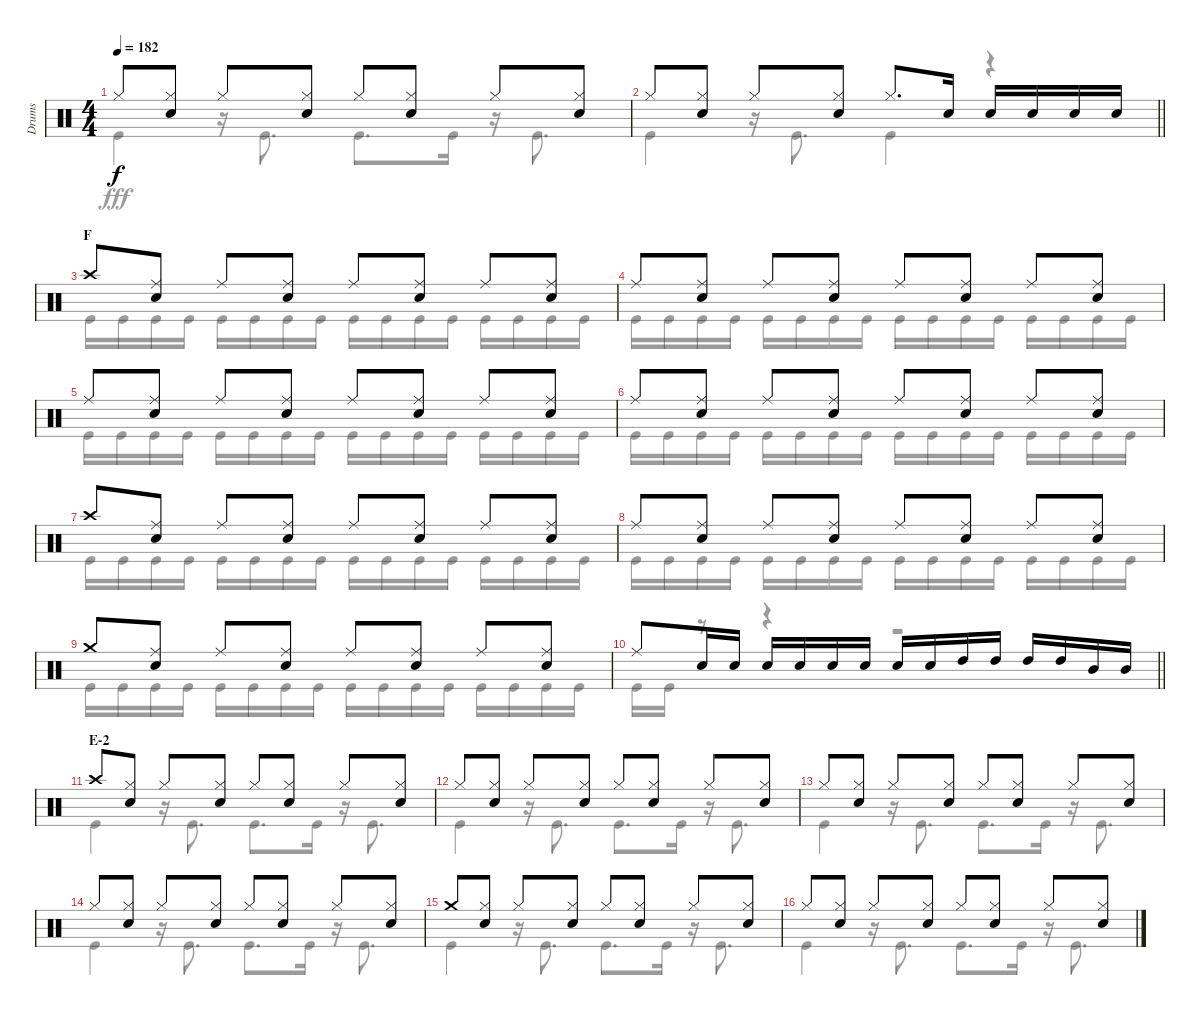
\track ("Drums" "Drums") {instrument percussion}
\staff {score}
\articulation defaults
\voice
\ts (4 4)
\tempo 182
\clef neutral
\ks c "Hi-Hat (closed)".8{dy f}
("Hi-Hat (closed)" "Snare (hit) 2").8 "Hi-Hat (closed)".8 ("Hi-Hat (closed)" "Snare (hit) 2").8 "Hi-Hat (closed)".8 ("Hi-Hat (closed)" "Snare (hit) 2").8 "Hi-Hat (closed)".8 ("Hi-Hat (closed)" "Snare (hit) 2").8 |
\barLineRight lightlight "Hi-Hat (closed)".8
("Hi-Hat (closed)" "Snare (hit) 2").8 "Hi-Hat (closed)".8 ("Hi-Hat (closed)" "Snare (hit) 2").8 "Hi-Hat (closed)".8{d} "Snare (hit) 2".16 "Snare (hit) 2".16 "Snare (hit) 2".16 "Snare (hit) 2".16 "Snare (hit) 2".16 |
\section ("" "F")
"Crash high (hit)".8 ("Ride (middle)" "Snare (hit) 2").8 "Ride (middle)".8 ("Ride (middle)" "Snare (hit) 2").8 "Ride (middle)".8 ("Ride (middle)" "Snare (hit) 2").8 "Ride (middle)".8 ("Ride (middle)" "Snare (hit) 2").8 |
"Ride (middle)".8 ("Ride (middle)" "Snare (hit) 2").8 "Ride (middle)".8 ("Ride (middle)" "Snare (hit) 2").8 "Ride (middle)".8 ("Ride (middle)" "Snare (hit) 2").8 "Ride (middle)".8 ("Ride (middle)" "Snare (hit) 2").8 |
"Ride (middle)".8 ("Ride (middle)" "Snare (hit) 2").8 "Ride (middle)".8 ("Ride (middle)" "Snare (hit) 2").8 "Ride (middle)".8 ("Ride (middle)" "Snare (hit) 2").8 "Ride (middle)".8 ("Ride (middle)" "Snare (hit) 2").8 |
"Ride (middle)".8 ("Ride (middle)" "Snare (hit) 2").8 "Ride (middle)".8 ("Ride (middle)" "Snare (hit) 2").8 "Ride (middle)".8 ("Ride (middle)" "Snare (hit) 2").8 "Ride (middle)".8 ("Ride (middle)" "Snare (hit) 2").8 |
"Crash high (hit)".8 ("Ride (middle)" "Snare (hit) 2").8 "Ride (middle)".8 ("Ride (middle)" "Snare (hit) 2").8 "Ride (middle)".8 ("Ride (middle)" "Snare (hit) 2").8 "Ride (middle)".8 ("Ride (middle)" "Snare (hit) 2").8 |
"Ride (middle)".8 ("Ride (middle)" "Snare (hit) 2").8 "Ride (middle)".8 ("Ride (middle)" "Snare (hit) 2").8 "Ride (middle)".8 ("Ride (middle)" "Snare (hit) 2").8 "Ride (middle)".8 ("Ride (middle)" "Snare (hit) 2").8 |
"Crash medium (hit)".8 ("Ride (middle)" "Snare (hit) 2").8 "Ride (middle)".8 ("Ride (middle)" "Snare (hit) 2").8 "Ride (middle)".8 ("Ride (middle)" "Snare (hit) 2").8 "Ride (middle)".8 ("Ride (middle)" "Snare (hit) 2").8 |
\barLineRight lightlight "Ride (middle)".8 "Snare (hit) 2".16 "Snare (hit) 2".16 "Snare (hit) 2".16 "Snare (hit) 2".16 "Snare (hit) 2".16 "Snare (hit) 2".16 "Snare (hit) 2".16 "Snare (hit) 2".16 "High Tom (hit)".16 "High Tom (hit)".16 "High Tom (hit)".16 "High Tom (hit)".16 "Mid Tom (hit)".16 "Mid Tom (hit)".16
|
\section ("" "E-2")
"Crash high (hit)".8 ("Hi-Hat (closed)" "Snare (hit) 2").8 "Hi-Hat (closed)".8 ("Hi-Hat (closed)" "Snare (hit) 2").8 "Hi-Hat (closed)".8 ("Hi-Hat (closed)" "Snare (hit) 2").8 "Hi-Hat (closed)".8 ("Hi-Hat (closed)" "Snare (hit) 2").8 |
"Hi-Hat (closed)".8 ("Hi-Hat (closed)" "Snare (hit) 2").8 "Hi-Hat (closed)".8 ("Hi-Hat (closed)" "Snare (hit) 2").8 "Hi-Hat (closed)".8 ("Hi-Hat (closed)" "Snare (hit) 2").8 "Hi-Hat (closed)".8 ("Hi-Hat (closed)" "Snare (hit) 2").8 |
"Hi-Hat (closed)".8 ("Hi-Hat (closed)" "Snare (hit) 2").8 "Hi-Hat (closed)".8 ("Hi-Hat (closed)" "Snare (hit) 2").8 "Hi-Hat (closed)".8 ("Hi-Hat (closed)" "Snare (hit) 2").8 "Hi-Hat (closed)".8 ("Hi-Hat (closed)" "Snare (hit) 2").8 |
"Hi-Hat (closed)".8 ("Hi-Hat (closed)" "Snare (hit) 2").8 "Hi-Hat (closed)".8 ("Hi-Hat (closed)" "Snare (hit) 2").8 "Hi-Hat (closed)".8 ("Hi-Hat (closed)" "Snare (hit) 2").8 "Hi-Hat (closed)".8 ("Hi-Hat (closed)" "Snare (hit) 2").8 |
"Crash medium (hit)".8 ("Hi-Hat (closed)" "Snare (hit) 2").8 "Hi-Hat (closed)".8 ("Hi-Hat (closed)" "Snare (hit) 2").8 "Hi-Hat (closed)".8 ("Hi-Hat (closed)" "Snare (hit) 2").8 "Hi-Hat (closed)".8 ("Hi-Hat (closed)" "Snare (hit) 2").8 |
"Hi-Hat (closed)".8 ("Hi-Hat (closed)" "Snare (hit) 2").8 "Hi-Hat (closed)".8 ("Hi-Hat (closed)" "Snare (hit) 2").8 "Hi-Hat (closed)".8 ("Hi-Hat (closed)" "Snare (hit) 2").8 "Hi-Hat (closed)".8 ("Hi-Hat (closed)" "Snare (hit) 2").8
\voice
\clef neutral
\ottava regular
\simile none
\ks c "Kick (hit)".4{dy fff}
r.16 "Kick (hit)".8{d} "Kick (hit)".8{d} "Kick (hit)".16 r.16 "Kick (hit)".8{d} |
\barLineRight lightlight "Kick (hit)".4
r.16 "Kick (hit)".8{d} "Kick (hit)".4 r.4 |
"Kick (hit)".16 "Kick (hit)".16 "Kick (hit)".16 "Kick (hit)".16 "Kick (hit)".16 "Kick (hit)".16 "Kick (hit)".16 "Kick (hit)".16 "Kick (hit)".16 "Kick (hit)".16 "Kick (hit)".16 "Kick (hit)".16 "Kick (hit)".16 "Kick (hit)".16 "Kick (hit)".16 "Kick (hit)".16 |
"Kick (hit)".16 "Kick (hit)".16 "Kick (hit)".16 "Kick (hit)".16 "Kick (hit)".16 "Kick (hit)".16 "Kick (hit)".16 "Kick (hit)".16 "Kick (hit)".16 "Kick (hit)".16 "Kick (hit)".16 "Kick (hit)".16 "Kick (hit)".16 "Kick (hit)".16 "Kick (hit)".16 "Kick (hit)".16 |
"Kick (hit)".16 "Kick (hit)".16 "Kick (hit)".16 "Kick (hit)".16 "Kick (hit)".16 "Kick (hit)".16 "Kick (hit)".16 "Kick (hit)".16 "Kick (hit)".16 "Kick (hit)".16 "Kick (hit)".16 "Kick (hit)".16 "Kick (hit)".16 "Kick (hit)".16 "Kick (hit)".16 "Kick (hit)".16 |
"Kick (hit)".16 "Kick (hit)".16 "Kick (hit)".16 "Kick (hit)".16 "Kick (hit)".16 "Kick (hit)".16 "Kick (hit)".16 "Kick (hit)".16 "Kick (hit)".16 "Kick (hit)".16 "Kick (hit)".16 "Kick (hit)".16 "Kick (hit)".16 "Kick (hit)".16 "Kick (hit)".16 "Kick (hit)".16 |
"Kick (hit)".16 "Kick (hit)".16 "Kick (hit)".16 "Kick (hit)".16 "Kick (hit)".16 "Kick (hit)".16 "Kick (hit)".16 "Kick (hit)".16 "Kick (hit)".16 "Kick (hit)".16 "Kick (hit)".16 "Kick (hit)".16 "Kick (hit)".16 "Kick (hit)".16 "Kick (hit)".16 "Kick (hit)".16 |
"Kick (hit)".16 "Kick (hit)".16 "Kick (hit)".16 "Kick (hit)".16 "Kick (hit)".16 "Kick (hit)".16 "Kick (hit)".16 "Kick (hit)".16 "Kick (hit)".16 "Kick (hit)".16 "Kick (hit)".16 "Kick (hit)".16 "Kick (hit)".16 "Kick (hit)".16 "Kick (hit)".16 "Kick (hit)".16 |
"Kick (hit)".16 "Kick (hit)".16 "Kick (hit)".16 "Kick (hit)".16 "Kick (hit)".16 "Kick (hit)".16 "Kick (hit)".16 "Kick (hit)".16 "Kick (hit)".16 "Kick (hit)".16 "Kick (hit)".16 "Kick (hit)".16 "Kick (hit)".16 "Kick (hit)".16 "Kick (hit)".16 "Kick (hit)".16 |
\barLineRight lightlight "Kick (hit)".16 "Kick (hit)".16
r.8 r.4 r.2 |
"Kick (hit)".4 r.16 "Kick (hit)".8{d} "Kick (hit)".8{d} "Kick (hit)".16 r.16 "Kick (hit)".8{d} |
"Kick (hit)".4 r.16 "Kick (hit)".8{d} "Kick (hit)".8{d} "Kick (hit)".16 r.16 "Kick (hit)".8{d} |
"Kick (hit)".4 r.16 "Kick (hit)".8{d} "Kick (hit)".8{d} "Kick (hit)".16 r.16 "Kick (hit)".8{d} |
"Kick (hit)".4 r.16 "Kick (hit)".8{d} "Kick (hit)".8{d} "Kick (hit)".16 r.16 "Kick (hit)".8{d} |
"Kick (hit)".4 r.16 "Kick (hit)".8{d} "Kick (hit)".8{d} "Kick (hit)".16 r.16 "Kick (hit)".8{d} |
"Kick (hit)".4 r.16 "Kick (hit)".8{d} "Kick (hit)".8{d} "Kick (hit)".16 r.16 "Kick (hit)".8{d}
